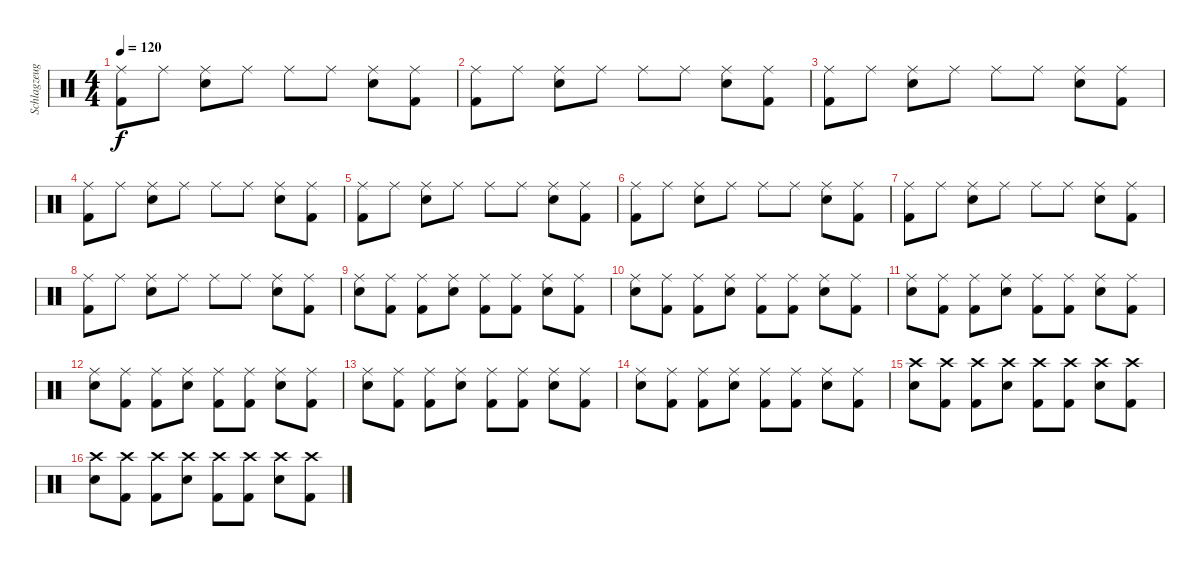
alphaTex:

\track ("Schlagzeug[Gustav Schäfer]" "Schlagzeug") {instrument percussion}
\staff {score}
\articulation defaults
\ts (4 4)
\tempo 120
\clef neutral
\ks c
("Kick (hit) 2" "Ride (middle)").8{dy f} "Ride (middle)".8 ("Ride (middle)" "Snare (hit) 2").8 "Ride (middle)".8 "Ride (middle)".8 "Ride (middle)".8 ("Snare (hit) 2" "Ride (middle)").8 ("Ride (middle)" "Kick (hit) 2").8 |
("Kick (hit) 2" "Ride (middle)").8 "Ride (middle)".8 ("Ride (middle)" "Snare (hit) 2").8 "Ride (middle)".8 "Ride (middle)".8 "Ride (middle)".8 ("Snare (hit) 2" "Ride (middle)").8 ("Ride (middle)" "Kick (hit) 2").8 |
("Kick (hit) 2" "Ride (middle)").8 "Ride (middle)".8 ("Ride (middle)" "Snare (hit) 2").8 "Ride (middle)".8 "Ride (middle)".8 "Ride (middle)".8 ("Snare (hit) 2" "Ride (middle)").8 ("Ride (middle)" "Kick (hit) 2").8 |
("Kick (hit) 2" "Ride (middle)").8 "Ride (middle)".8 ("Ride (middle)" "Snare (hit) 2").8 "Ride (middle)".8 "Ride (middle)".8 "Ride (middle)".8 ("Snare (hit) 2" "Ride (middle)").8 ("Ride (middle)" "Kick (hit) 2").8 |
("Kick (hit) 2" "Ride (middle)").8 "Ride (middle)".8 ("Ride (middle)" "Snare (hit) 2").8 "Ride (middle)".8 "Ride (middle)".8 "Ride (middle)".8 ("Snare (hit) 2" "Ride (middle)").8 ("Ride (middle)" "Kick (hit) 2").8 |
("Kick (hit) 2" "Ride (middle)").8 "Ride (middle)".8 ("Ride (middle)" "Snare (hit) 2").8 "Ride (middle)".8 "Ride (middle)".8 "Ride (middle)".8 ("Snare (hit) 2" "Ride (middle)").8 ("Ride (middle)" "Kick (hit) 2").8 |
("Kick (hit) 2" "Ride (middle)").8 "Ride (middle)".8 ("Ride (middle)" "Snare (hit) 2").8 "Ride (middle)".8 "Ride (middle)".8 "Ride (middle)".8 ("Snare (hit) 2" "Ride (middle)").8 ("Ride (middle)" "Kick (hit) 2").8 |
("Kick (hit) 2" "Ride (middle)").8 "Ride (middle)".8 ("Ride (middle)" "Snare (hit) 2").8 "Ride (middle)".8 "Ride (middle)".8 "Ride (middle)".8 ("Snare (hit) 2" "Ride (middle)").8 ("Ride (middle)" "Kick (hit) 2").8 |
("Snare (hit) 2" "Ride (middle)").8 ("Kick (hit) 2" "Ride (middle)").8 ("Ride (middle)" "Kick (hit) 2").8 ("Snare (hit) 2" "Ride (middle)").8 ("Kick (hit) 2" "Ride (middle)").8 ("Kick (hit) 2" "Ride (middle)").8 ("Snare (hit) 2" "Ride (middle)").8 ("Ride (middle)" "Kick (hit) 2").8 |
("Snare (hit) 2" "Ride (middle)").8 ("Kick (hit) 2" "Ride (middle)").8 ("Ride (middle)" "Kick (hit) 2").8 ("Snare (hit) 2" "Ride (middle)").8 ("Kick (hit) 2" "Ride (middle)").8 ("Kick (hit) 2" "Ride (middle)").8 ("Snare (hit) 2" "Ride (middle)").8 ("Ride (middle)" "Kick (hit) 2").8 |
("Snare (hit) 2" "Ride (middle)").8 ("Kick (hit) 2" "Ride (middle)").8 ("Ride (middle)" "Kick (hit) 2").8 ("Snare (hit) 2" "Ride (middle)").8 ("Kick (hit) 2" "Ride (middle)").8 ("Kick (hit) 2" "Ride (middle)").8 ("Snare (hit) 2" "Ride (middle)").8 ("Ride (middle)" "Kick (hit) 2").8 |
("Snare (hit) 2" "Ride (middle)").8 ("Kick (hit) 2" "Ride (middle)").8 ("Ride (middle)" "Kick (hit) 2").8 ("Snare (hit) 2" "Ride (middle)").8 ("Kick (hit) 2" "Ride (middle)").8 ("Kick (hit) 2" "Ride (middle)").8 ("Snare (hit) 2" "Ride (middle)").8 ("Ride (middle)" "Kick (hit) 2").8 |
("Snare (hit) 2" "Ride (middle)").8 ("Kick (hit) 2" "Ride (middle)").8 ("Ride (middle)" "Kick (hit) 2").8 ("Snare (hit) 2" "Ride (middle)").8 ("Kick (hit) 2" "Ride (middle)").8 ("Kick (hit) 2" "Ride (middle)").8 ("Snare (hit) 2" "Ride (middle)").8 ("Ride (middle)" "Kick (hit) 2").8 |
("Snare (hit) 2" "Ride (middle)").8 ("Kick (hit) 2" "Ride (middle)").8 ("Ride (middle)" "Kick (hit) 2").8 ("Snare (hit) 2" "Ride (middle)").8 ("Kick (hit) 2" "Ride (middle)").8 ("Kick (hit) 2" "Ride (middle)").8 ("Snare (hit) 2" "Ride (middle)").8 ("Ride (middle)" "Kick (hit) 2").8 |
("Snare (hit) 2" "Crash high (hit)").8 ("Kick (hit) 2" "Crash high (hit)").8 ("Crash high (hit)" "Kick (hit) 2").8 ("Snare (hit) 2" "Crash high (hit)").8 ("Kick (hit) 2" "Crash high (hit)").8 ("Kick (hit) 2" "Crash high (hit)").8 ("Snare (hit) 2" "Crash high (hit)").8 ("Crash high (hit)" "Kick (hit) 2").8 |
("Snare (hit) 2" "Crash high (hit)").8 ("Kick (hit) 2" "Crash high (hit)").8 ("Crash high (hit)" "Kick (hit) 2").8 ("Snare (hit) 2" "Crash high (hit)").8 ("Kick (hit) 2" "Crash high (hit)").8 ("Kick (hit) 2" "Crash high (hit)").8 ("Snare (hit) 2" "Crash high (hit)").8 ("Crash high (hit)" "Kick (hit) 2").8
